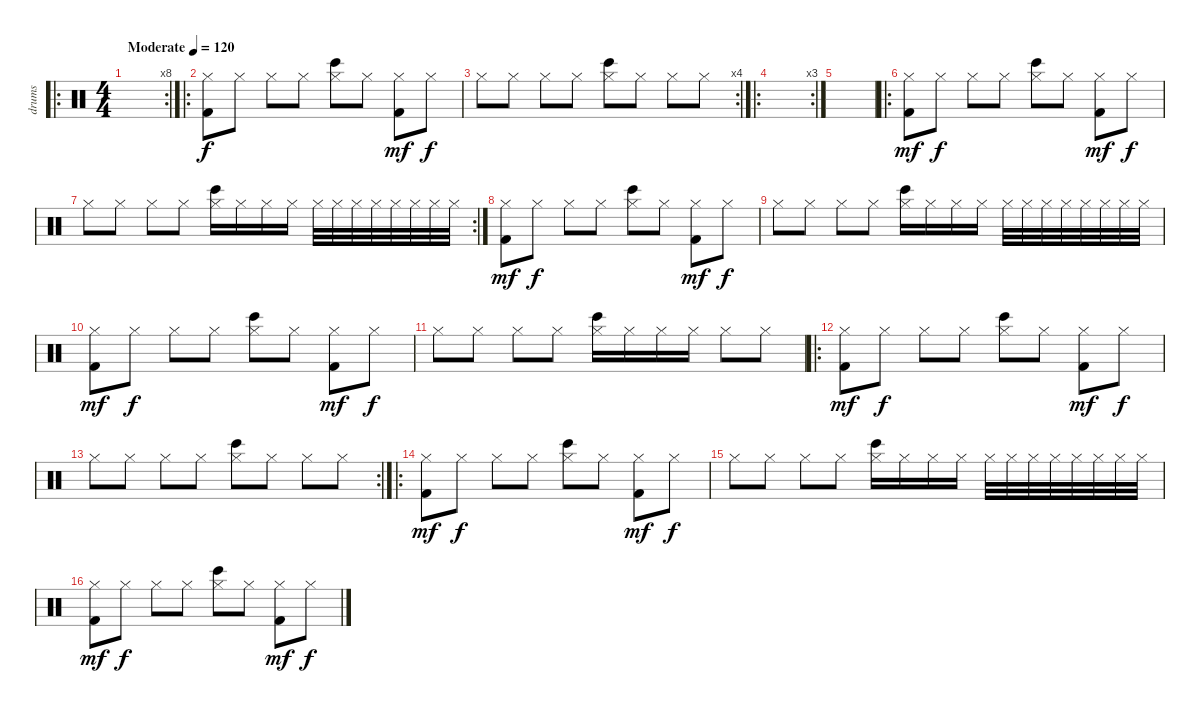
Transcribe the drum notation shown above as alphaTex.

\track ("drums" "drums") {instrument percussion}
\staff {score}
\articulation defaults
\ro
\rc 8
\ts (4 4)
\tempo (120 "Moderate")
\clef neutral
\ks c
|
\ro
("Hi-Hat (closed)" "Kick (hit) 2").8 "Hi-Hat (closed)".8{dy f} "Hi-Hat (closed)".8 "Hi-Hat (closed)".8 ("Hi-Hat (closed)" "Bongo High (hit)").8 "Hi-Hat (closed)".8 ("Hi-Hat (closed)" "Kick (hit) 2").8{dy mf} "Hi-Hat (closed)".8{dy f} |
\rc 4 "Hi-Hat (closed)".8 "Hi-Hat (closed)".8 "Hi-Hat (closed)".8 "Hi-Hat (closed)".8
("Hi-Hat (closed)" "Bongo High (hit)").8 "Hi-Hat (closed)".8 "Hi-Hat (closed)".8 "Hi-Hat (closed)".8 |
\ro
\rc 3
|
|
\ro
("Hi-Hat (closed)" "Kick (hit) 2").8{dy mf volume 13} "Hi-Hat (closed)".8{dy f} "Hi-Hat (closed)".8 "Hi-Hat (closed)".8 ("Hi-Hat (closed)" "Bongo High (hit)").8 "Hi-Hat (closed)".8 ("Hi-Hat (closed)" "Kick (hit) 2").8{dy mf} "Hi-Hat (closed)".8{dy f} |
\rc 2 "Hi-Hat (closed)".8 "Hi-Hat (closed)".8 "Hi-Hat (closed)".8 "Hi-Hat (closed)".8
("Hi-Hat (closed)" "Bongo High (hit)").16 "Hi-Hat (closed)".16 "Hi-Hat (closed)".16 "Hi-Hat (closed)".16 "Hi-Hat (closed)".32 "Hi-Hat (closed)".32 "Hi-Hat (closed)".32 "Hi-Hat (closed)".32 "Hi-Hat (closed)".32 "Hi-Hat (closed)".32 "Hi-Hat (closed)".32 "Hi-Hat (closed)".32 |
("Hi-Hat (closed)" "Kick (hit) 2").8{dy mf} "Hi-Hat (closed)".8{dy f} "Hi-Hat (closed)".8 "Hi-Hat (closed)".8 ("Hi-Hat (closed)" "Bongo High (hit)").8 "Hi-Hat (closed)".8 ("Hi-Hat (closed)" "Kick (hit) 2").8{dy mf} "Hi-Hat (closed)".8{dy f} |
"Hi-Hat (closed)".8 "Hi-Hat (closed)".8 "Hi-Hat (closed)".8 "Hi-Hat (closed)".8 ("Hi-Hat (closed)" "Bongo High (hit)").16 "Hi-Hat (closed)".16 "Hi-Hat (closed)".16 "Hi-Hat (closed)".16 "Hi-Hat (closed)".32 "Hi-Hat (closed)".32 "Hi-Hat (closed)".32 "Hi-Hat (closed)".32 "Hi-Hat (closed)".32 "Hi-Hat (closed)".32 "Hi-Hat (closed)".32 "Hi-Hat (closed)".32 |
("Hi-Hat (closed)" "Kick (hit) 2").8{dy mf} "Hi-Hat (closed)".8{dy f} "Hi-Hat (closed)".8 "Hi-Hat (closed)".8 ("Hi-Hat (closed)" "Bongo High (hit)").8 "Hi-Hat (closed)".8 ("Hi-Hat (closed)" "Kick (hit) 2").8{dy mf} "Hi-Hat (closed)".8{dy f} |
"Hi-Hat (closed)".8 "Hi-Hat (closed)".8 "Hi-Hat (closed)".8 "Hi-Hat (closed)".8 ("Hi-Hat (closed)" "Bongo High (hit)").16 "Hi-Hat (closed)".16 "Hi-Hat (closed)".16 "Hi-Hat (closed)".16 "Hi-Hat (closed)".8 "Hi-Hat (closed)".8 |
\ro
("Hi-Hat (closed)" "Kick (hit) 2").8{dy mf} "Hi-Hat (closed)".8{dy f} "Hi-Hat (closed)".8 "Hi-Hat (closed)".8 ("Hi-Hat (closed)" "Bongo High (hit)").8 "Hi-Hat (closed)".8 ("Hi-Hat (closed)" "Kick (hit) 2").8{dy mf} "Hi-Hat (closed)".8{dy f} |
\rc 2 "Hi-Hat (closed)".8 "Hi-Hat (closed)".8 "Hi-Hat (closed)".8 "Hi-Hat (closed)".8
("Hi-Hat (closed)" "Bongo High (hit)").8 "Hi-Hat (closed)".8 "Hi-Hat (closed)".8 "Hi-Hat (closed)".8 |
\ro
("Hi-Hat (closed)" "Kick (hit) 2").8{dy mf} "Hi-Hat (closed)".8{dy f} "Hi-Hat (closed)".8 "Hi-Hat (closed)".8 ("Hi-Hat (closed)" "Bongo High (hit)").8 "Hi-Hat (closed)".8 ("Hi-Hat (closed)" "Kick (hit) 2").8{dy mf} "Hi-Hat (closed)".8{dy f} |
"Hi-Hat (closed)".8 "Hi-Hat (closed)".8 "Hi-Hat (closed)".8 "Hi-Hat (closed)".8 ("Hi-Hat (closed)" "Bongo High (hit)").16 "Hi-Hat (closed)".16 "Hi-Hat (closed)".16 "Hi-Hat (closed)".16 "Hi-Hat (closed)".32 "Hi-Hat (closed)".32 "Hi-Hat (closed)".32 "Hi-Hat (closed)".32 "Hi-Hat (closed)".32 "Hi-Hat (closed)".32 "Hi-Hat (closed)".32 "Hi-Hat (closed)".32 |
("Hi-Hat (closed)" "Kick (hit) 2").8{dy mf} "Hi-Hat (closed)".8{dy f} "Hi-Hat (closed)".8 "Hi-Hat (closed)".8 ("Hi-Hat (closed)" "Bongo High (hit)").8 "Hi-Hat (closed)".8 ("Hi-Hat (closed)" "Kick (hit) 2").8{dy mf} "Hi-Hat (closed)".8{dy f}
